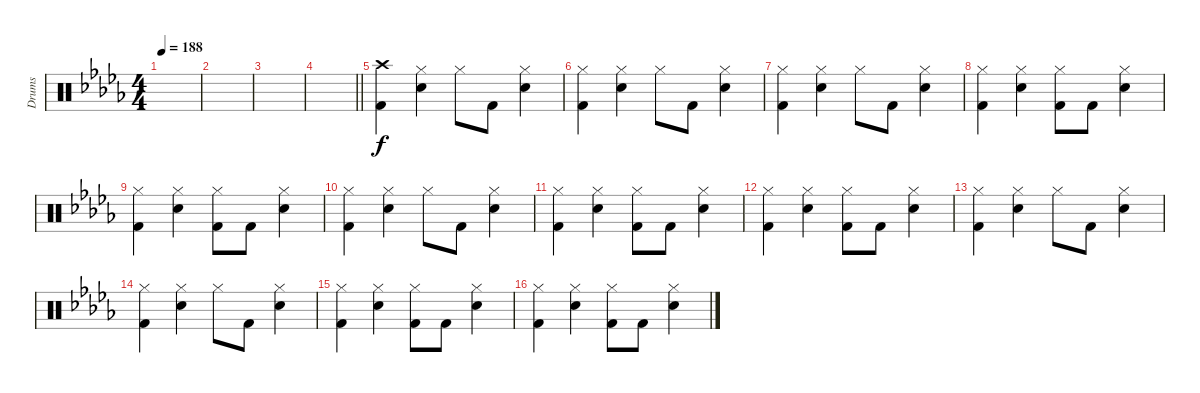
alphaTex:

\track ("Drums" "Drums") {instrument percussion}
\staff {score}
\articulation defaults
\ts (4 4)
\tempo 188
\clef neutral
\ks bbminor
|
|
|
\barLineRight lightlight
|
("Crash high (hit)" "Kick (hit) 2").4 ("Hi-Hat (closed)" "Electric Snare (hit)").4 "Hi-Hat (closed)".8 "Kick (hit) 2".8 ("Hi-Hat (closed)" "Electric Snare (hit)").4 |
("Hi-Hat (closed)" "Kick (hit) 2").4 ("Hi-Hat (closed)" "Electric Snare (hit)").4 "Hi-Hat (closed)".8 "Kick (hit) 2".8 ("Hi-Hat (closed)" "Electric Snare (hit)").4 |
("Hi-Hat (closed)" "Kick (hit) 2").4 ("Hi-Hat (closed)" "Electric Snare (hit)").4 "Hi-Hat (closed)".8 "Kick (hit) 2".8 ("Hi-Hat (closed)" "Electric Snare (hit)").4 |
("Hi-Hat (closed)" "Kick (hit) 2").4 ("Hi-Hat (closed)" "Electric Snare (hit)").4 ("Hi-Hat (closed)" "Kick (hit) 2").8 "Kick (hit) 2".8 ("Hi-Hat (closed)" "Electric Snare (hit)").4 |
("Hi-Hat (closed)" "Kick (hit) 2").4 ("Hi-Hat (closed)" "Electric Snare (hit)").4 ("Hi-Hat (closed)" "Kick (hit) 2").8 "Kick (hit) 2".8 ("Hi-Hat (closed)" "Electric Snare (hit)").4 |
("Hi-Hat (closed)" "Kick (hit) 2").4 ("Hi-Hat (closed)" "Electric Snare (hit)").4 "Hi-Hat (closed)".8 "Kick (hit) 2".8 ("Hi-Hat (closed)" "Electric Snare (hit)").4 |
("Hi-Hat (closed)" "Kick (hit) 2").4 ("Hi-Hat (closed)" "Electric Snare (hit)").4 ("Hi-Hat (closed)" "Kick (hit) 2").8 "Kick (hit) 2".8 ("Hi-Hat (closed)" "Electric Snare (hit)").4 |
("Hi-Hat (closed)" "Kick (hit) 2").4 ("Hi-Hat (closed)" "Electric Snare (hit)").4 ("Hi-Hat (closed)" "Kick (hit) 2").8 "Kick (hit) 2".8 ("Hi-Hat (closed)" "Electric Snare (hit)").4 |
("Hi-Hat (closed)" "Kick (hit) 2").4 ("Hi-Hat (closed)" "Electric Snare (hit)").4 "Hi-Hat (closed)".8 "Kick (hit) 2".8 ("Hi-Hat (closed)" "Electric Snare (hit)").4 |
("Hi-Hat (closed)" "Kick (hit) 2").4 ("Hi-Hat (closed)" "Electric Snare (hit)").4 "Hi-Hat (closed)".8 "Kick (hit) 2".8 ("Hi-Hat (closed)" "Electric Snare (hit)").4 |
("Hi-Hat (closed)" "Kick (hit) 2").4 ("Hi-Hat (closed)" "Electric Snare (hit)").4 ("Hi-Hat (closed)" "Kick (hit) 2").8 "Kick (hit) 2".8 ("Hi-Hat (closed)" "Electric Snare (hit)").4 |
("Hi-Hat (closed)" "Kick (hit) 2").4 ("Hi-Hat (closed)" "Electric Snare (hit)").4 ("Hi-Hat (closed)" "Kick (hit) 2").8 "Kick (hit) 2".8 ("Hi-Hat (closed)" "Electric Snare (hit)").4
